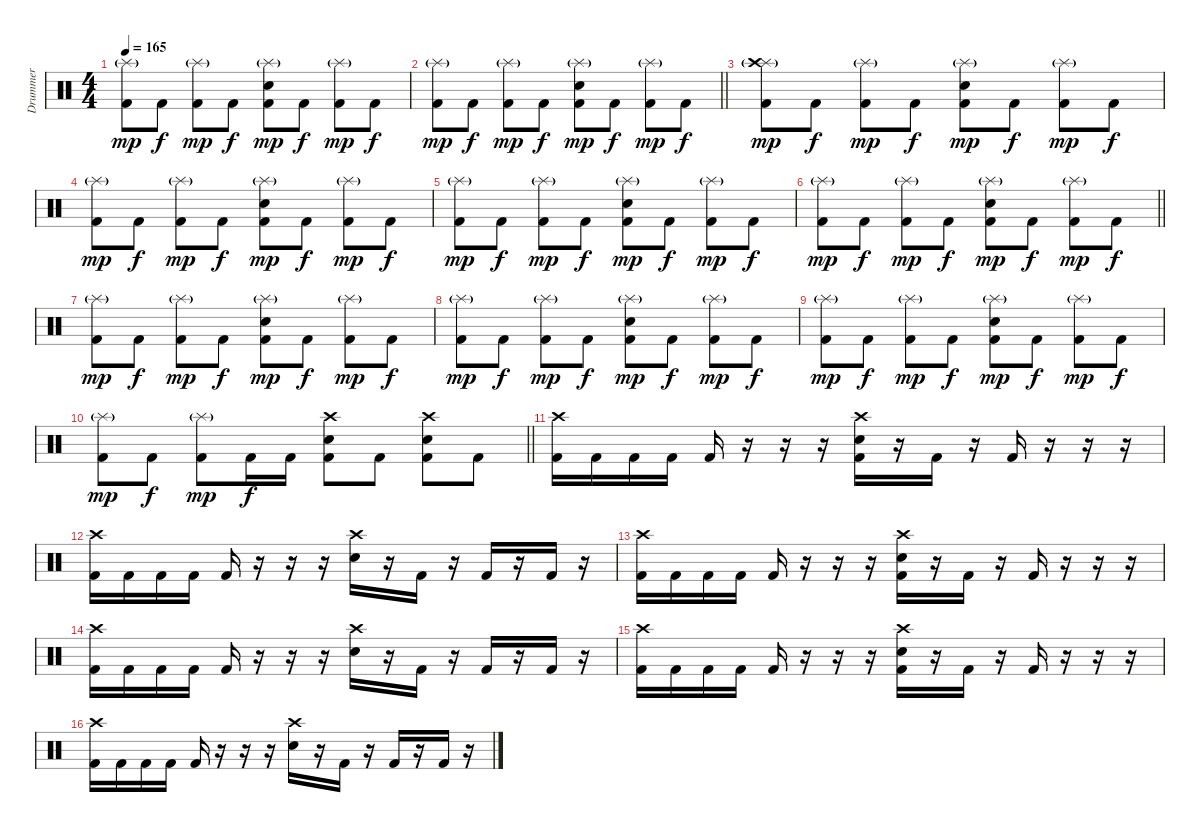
\track ("Drummer" "Drummer") {instrument percussion}
\staff {score}
\articulation defaults
\ts (4 4)
\tempo 165
\clef neutral
\ks c
("Splash (hit)"{g} "Kick (hit) 2").8{dy mp} "Kick (hit) 2".8{dy f} ("Splash (hit)"{g} "Kick (hit) 2").8{dy mp} "Kick (hit) 2".8{dy f} ("Splash (hit)"{g} "Snare (hit) 2" "Kick (hit) 2").8{dy mp} "Kick (hit) 2".8{dy f} ("Splash (hit)"{g} "Kick (hit) 2").8{dy mp} "Kick (hit) 2".8{dy f} |
\barLineRight lightlight
("Splash (hit)"{g} "Kick (hit) 2").8{dy mp} "Kick (hit) 2".8{dy f} ("Splash (hit)"{g} "Kick (hit) 2").8{dy mp} "Kick (hit) 2".8{dy f} ("Splash (hit)"{g} "Snare (hit) 2" "Kick (hit) 2").8{dy mp} "Kick (hit) 2".8{dy f} ("Splash (hit)"{g} "Kick (hit) 2").8{dy mp} "Kick (hit) 2".8{dy f} |
("Splash (hit)"{g} "Crash high (hit)" "Kick (hit) 2").8{dy mp} "Kick (hit) 2".8{dy f} ("Splash (hit)"{g} "Kick (hit) 2").8{dy mp} "Kick (hit) 2".8{dy f} ("Splash (hit)"{g} "Snare (hit) 2" "Kick (hit) 2").8{dy mp} "Kick (hit) 2".8{dy f} ("Splash (hit)"{g} "Kick (hit) 2").8{dy mp} "Kick (hit) 2".8{dy f} |
("Splash (hit)"{g} "Kick (hit) 2").8{dy mp} "Kick (hit) 2".8{dy f} ("Splash (hit)"{g} "Kick (hit) 2").8{dy mp} "Kick (hit) 2".8{dy f} ("Splash (hit)"{g} "Snare (hit) 2" "Kick (hit) 2").8{dy mp} "Kick (hit) 2".8{dy f} ("Splash (hit)"{g} "Kick (hit) 2").8{dy mp} "Kick (hit) 2".8{dy f} |
("Splash (hit)"{g} "Kick (hit) 2").8{dy mp} "Kick (hit) 2".8{dy f} ("Splash (hit)"{g} "Kick (hit) 2").8{dy mp} "Kick (hit) 2".8{dy f} ("Splash (hit)"{g} "Snare (hit) 2" "Kick (hit) 2").8{dy mp} "Kick (hit) 2".8{dy f} ("Splash (hit)"{g} "Kick (hit) 2").8{dy mp} "Kick (hit) 2".8{dy f} |
\barLineRight lightlight
("Splash (hit)"{g} "Kick (hit) 2").8{dy mp} "Kick (hit) 2".8{dy f} ("Splash (hit)"{g} "Kick (hit) 2").8{dy mp} "Kick (hit) 2".8{dy f} ("Splash (hit)"{g} "Snare (hit) 2" "Kick (hit) 2").8{dy mp} "Kick (hit) 2".8{dy f} ("Splash (hit)"{g} "Kick (hit) 2").8{dy mp} "Kick (hit) 2".8{dy f} |
("Splash (hit)"{g} "Kick (hit) 2").8{dy mp} "Kick (hit) 2".8{dy f} ("Splash (hit)"{g} "Kick (hit) 2").8{dy mp} "Kick (hit) 2".8{dy f} ("Splash (hit)"{g} "Snare (hit) 2" "Kick (hit) 2").8{dy mp} "Kick (hit) 2".8{dy f} ("Splash (hit)"{g} "Kick (hit) 2").8{dy mp} "Kick (hit) 2".8{dy f} |
("Splash (hit)"{g} "Kick (hit) 2").8{dy mp} "Kick (hit) 2".8{dy f} ("Splash (hit)"{g} "Kick (hit) 2").8{dy mp} "Kick (hit) 2".8{dy f} ("Splash (hit)"{g} "Snare (hit) 2" "Kick (hit) 2").8{dy mp} "Kick (hit) 2".8{dy f} ("Splash (hit)"{g} "Kick (hit) 2").8{dy mp} "Kick (hit) 2".8{dy f} |
("Splash (hit)"{g} "Kick (hit) 2").8{dy mp} "Kick (hit) 2".8{dy f} ("Splash (hit)"{g} "Kick (hit) 2").8{dy mp} "Kick (hit) 2".8{dy f} ("Splash (hit)"{g} "Snare (hit) 2" "Kick (hit) 2").8{dy mp} "Kick (hit) 2".8{dy f} ("Splash (hit)"{g} "Kick (hit) 2").8{dy mp} "Kick (hit) 2".8{dy f} |
\barLineRight lightlight
("Splash (hit)"{g} "Kick (hit) 2").8{dy mp} "Kick (hit) 2".8{dy f} ("Splash (hit)"{g} "Kick (hit) 2").8{dy mp} "Kick (hit) 2".16{dy f} "Kick (hit) 2".16 ("Crash high (hit)" "Snare (hit) 2" "Kick (hit) 2").8 "Kick (hit) 2".8 ("Crash high (hit)" "Snare (hit) 2" "Kick (hit) 2").8 "Kick (hit) 2".8 |
("Crash high (hit)" "Kick (hit) 2").16 "Kick (hit) 2".16 "Kick (hit) 2".16 "Kick (hit) 2".16 "Kick (hit) 2".16 r.16 r.16 r.16 ("Crash high (hit)" "Snare (hit) 2" "Kick (hit) 2").16 r.16 "Kick (hit) 2".16 r.16 "Kick (hit) 2".16 r.16 r.16 r.16 |
("Crash high (hit)" "Kick (hit) 2").16 "Kick (hit) 2".16 "Kick (hit) 2".16 "Kick (hit) 2".16 "Kick (hit) 2".16 r.16 r.16 r.16 ("Crash high (hit)" "Snare (hit) 2").16 r.16 "Kick (hit) 2".16 r.16 "Kick (hit) 2".16 r.16 "Kick (hit) 2".16 r.16 |
("Crash high (hit)" "Kick (hit) 2").16 "Kick (hit) 2".16 "Kick (hit) 2".16 "Kick (hit) 2".16 "Kick (hit) 2".16 r.16 r.16 r.16 ("Crash high (hit)" "Snare (hit) 2" "Kick (hit) 2").16 r.16 "Kick (hit) 2".16 r.16 "Kick (hit) 2".16 r.16 r.16 r.16 |
("Crash high (hit)" "Kick (hit) 2").16 "Kick (hit) 2".16 "Kick (hit) 2".16 "Kick (hit) 2".16 "Kick (hit) 2".16 r.16 r.16 r.16 ("Crash high (hit)" "Snare (hit) 2").16 r.16 "Kick (hit) 2".16 r.16 "Kick (hit) 2".16 r.16 "Kick (hit) 2".16 r.16 |
("Crash high (hit)" "Kick (hit) 2").16 "Kick (hit) 2".16 "Kick (hit) 2".16 "Kick (hit) 2".16 "Kick (hit) 2".16 r.16 r.16 r.16 ("Crash high (hit)" "Snare (hit) 2" "Kick (hit) 2").16 r.16 "Kick (hit) 2".16 r.16 "Kick (hit) 2".16 r.16 r.16 r.16 |
("Crash high (hit)" "Kick (hit) 2").16 "Kick (hit) 2".16 "Kick (hit) 2".16 "Kick (hit) 2".16 "Kick (hit) 2".16 r.16 r.16 r.16 ("Crash high (hit)" "Snare (hit) 2").16 r.16 "Kick (hit) 2".16 r.16 "Kick (hit) 2".16 r.16 "Kick (hit) 2".16 r.16
